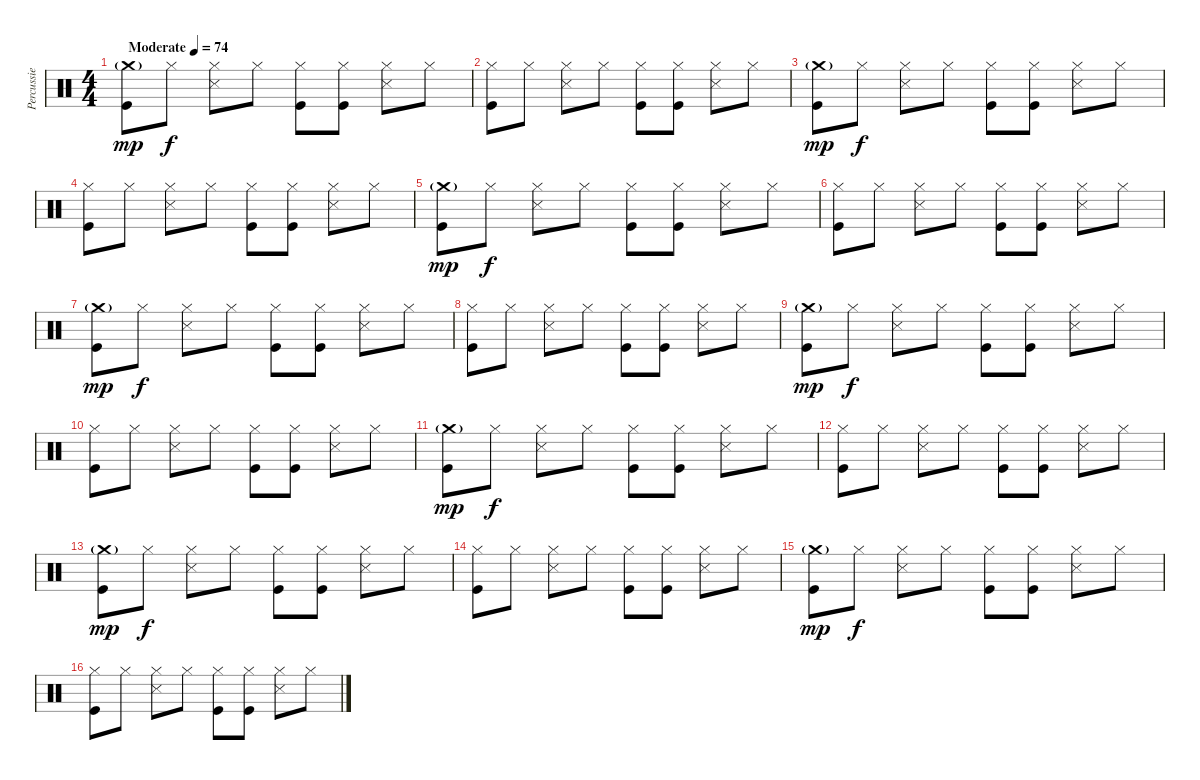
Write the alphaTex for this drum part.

\track ("Percussie" "Percussie") {instrument percussion}
\staff {score}
\articulation defaults
\ts (4 4)
\tempo (74 "Moderate")
\clef neutral
\ks c
("Crash medium (hit)"{g} "Kick (hit)").8{dy mp} "Hi-Hat (closed)".8{dy f} ("Hi-Hat (closed)" "Snare (side stick) 3").8 "Hi-Hat (closed)".8 ("Hi-Hat (closed)" "Kick (hit)").8 ("Hi-Hat (closed)" "Kick (hit)").8 ("Hi-Hat (closed)" "Snare (side stick) 3").8 "Hi-Hat (closed)".8 |
("Hi-Hat (closed)" "Kick (hit)").8 "Hi-Hat (closed)".8 ("Hi-Hat (closed)" "Snare (side stick) 3").8 "Hi-Hat (closed)".8 ("Hi-Hat (closed)" "Kick (hit)").8 ("Hi-Hat (closed)" "Kick (hit)").8 ("Hi-Hat (closed)" "Snare (side stick) 3").8 "Hi-Hat (closed)".8 |
("Crash medium (hit)"{g} "Kick (hit)").8{dy mp} "Hi-Hat (closed)".8{dy f} ("Hi-Hat (closed)" "Snare (side stick) 3").8 "Hi-Hat (closed)".8 ("Hi-Hat (closed)" "Kick (hit)").8 ("Hi-Hat (closed)" "Kick (hit)").8 ("Hi-Hat (closed)" "Snare (side stick) 3").8 "Hi-Hat (closed)".8 |
("Hi-Hat (closed)" "Kick (hit)").8 "Hi-Hat (closed)".8 ("Hi-Hat (closed)" "Snare (side stick) 3").8 "Hi-Hat (closed)".8 ("Hi-Hat (closed)" "Kick (hit)").8 ("Hi-Hat (closed)" "Kick (hit)").8 ("Hi-Hat (closed)" "Snare (side stick) 3").8 "Hi-Hat (closed)".8 |
("Crash medium (hit)"{g} "Kick (hit)").8{dy mp} "Hi-Hat (closed)".8{dy f} ("Hi-Hat (closed)" "Snare (side stick) 3").8 "Hi-Hat (closed)".8 ("Hi-Hat (closed)" "Kick (hit)").8 ("Hi-Hat (closed)" "Kick (hit)").8 ("Hi-Hat (closed)" "Snare (side stick) 3").8 "Hi-Hat (closed)".8 |
("Hi-Hat (closed)" "Kick (hit)").8 "Hi-Hat (closed)".8 ("Hi-Hat (closed)" "Snare (side stick) 3").8 "Hi-Hat (closed)".8 ("Hi-Hat (closed)" "Kick (hit)").8 ("Hi-Hat (closed)" "Kick (hit)").8 ("Hi-Hat (closed)" "Snare (side stick) 3").8 "Hi-Hat (closed)".8 |
("Crash medium (hit)"{g} "Kick (hit)").8{dy mp} "Hi-Hat (closed)".8{dy f} ("Hi-Hat (closed)" "Snare (side stick) 3").8 "Hi-Hat (closed)".8 ("Hi-Hat (closed)" "Kick (hit)").8 ("Hi-Hat (closed)" "Kick (hit)").8 ("Hi-Hat (closed)" "Snare (side stick) 3").8 "Hi-Hat (closed)".8 |
("Hi-Hat (closed)" "Kick (hit)").8 "Hi-Hat (closed)".8 ("Hi-Hat (closed)" "Snare (side stick) 3").8 "Hi-Hat (closed)".8 ("Hi-Hat (closed)" "Kick (hit)").8 ("Hi-Hat (closed)" "Kick (hit)").8 ("Hi-Hat (closed)" "Snare (side stick) 3").8 "Hi-Hat (closed)".8 |
("Crash medium (hit)"{g} "Kick (hit)").8{dy mp} "Hi-Hat (closed)".8{dy f} ("Hi-Hat (closed)" "Snare (side stick) 3").8 "Hi-Hat (closed)".8 ("Hi-Hat (closed)" "Kick (hit)").8 ("Hi-Hat (closed)" "Kick (hit)").8 ("Hi-Hat (closed)" "Snare (side stick) 3").8 "Hi-Hat (closed)".8 |
("Hi-Hat (closed)" "Kick (hit)").8 "Hi-Hat (closed)".8 ("Hi-Hat (closed)" "Snare (side stick) 3").8 "Hi-Hat (closed)".8 ("Hi-Hat (closed)" "Kick (hit)").8 ("Hi-Hat (closed)" "Kick (hit)").8 ("Hi-Hat (closed)" "Snare (side stick) 3").8 "Hi-Hat (closed)".8 |
("Crash medium (hit)"{g} "Kick (hit)").8{dy mp} "Hi-Hat (closed)".8{dy f} ("Hi-Hat (closed)" "Snare (side stick) 3").8 "Hi-Hat (closed)".8 ("Hi-Hat (closed)" "Kick (hit)").8 ("Hi-Hat (closed)" "Kick (hit)").8 ("Hi-Hat (closed)" "Snare (side stick) 3").8 "Hi-Hat (closed)".8 |
("Hi-Hat (closed)" "Kick (hit)").8 "Hi-Hat (closed)".8 ("Hi-Hat (closed)" "Snare (side stick) 3").8 "Hi-Hat (closed)".8 ("Hi-Hat (closed)" "Kick (hit)").8 ("Hi-Hat (closed)" "Kick (hit)").8 ("Hi-Hat (closed)" "Snare (side stick) 3").8 "Hi-Hat (closed)".8 |
("Crash medium (hit)"{g} "Kick (hit)").8{dy mp} "Hi-Hat (closed)".8{dy f} ("Hi-Hat (closed)" "Snare (side stick) 3").8 "Hi-Hat (closed)".8 ("Hi-Hat (closed)" "Kick (hit)").8 ("Hi-Hat (closed)" "Kick (hit)").8 ("Hi-Hat (closed)" "Snare (side stick) 3").8 "Hi-Hat (closed)".8 |
("Hi-Hat (closed)" "Kick (hit)").8 "Hi-Hat (closed)".8 ("Hi-Hat (closed)" "Snare (side stick) 3").8 "Hi-Hat (closed)".8 ("Hi-Hat (closed)" "Kick (hit)").8 ("Hi-Hat (closed)" "Kick (hit)").8 ("Hi-Hat (closed)" "Snare (side stick) 3").8 "Hi-Hat (closed)".8 |
("Crash medium (hit)"{g} "Kick (hit)").8{dy mp} "Hi-Hat (closed)".8{dy f} ("Hi-Hat (closed)" "Snare (side stick) 3").8 "Hi-Hat (closed)".8 ("Hi-Hat (closed)" "Kick (hit)").8 ("Hi-Hat (closed)" "Kick (hit)").8 ("Hi-Hat (closed)" "Snare (side stick) 3").8 "Hi-Hat (closed)".8 |
("Hi-Hat (closed)" "Kick (hit)").8 "Hi-Hat (closed)".8 ("Hi-Hat (closed)" "Snare (side stick) 3").8 "Hi-Hat (closed)".8 ("Hi-Hat (closed)" "Kick (hit)").8 ("Hi-Hat (closed)" "Kick (hit)").8 ("Hi-Hat (closed)" "Snare (side stick) 3").8 "Hi-Hat (closed)".8
